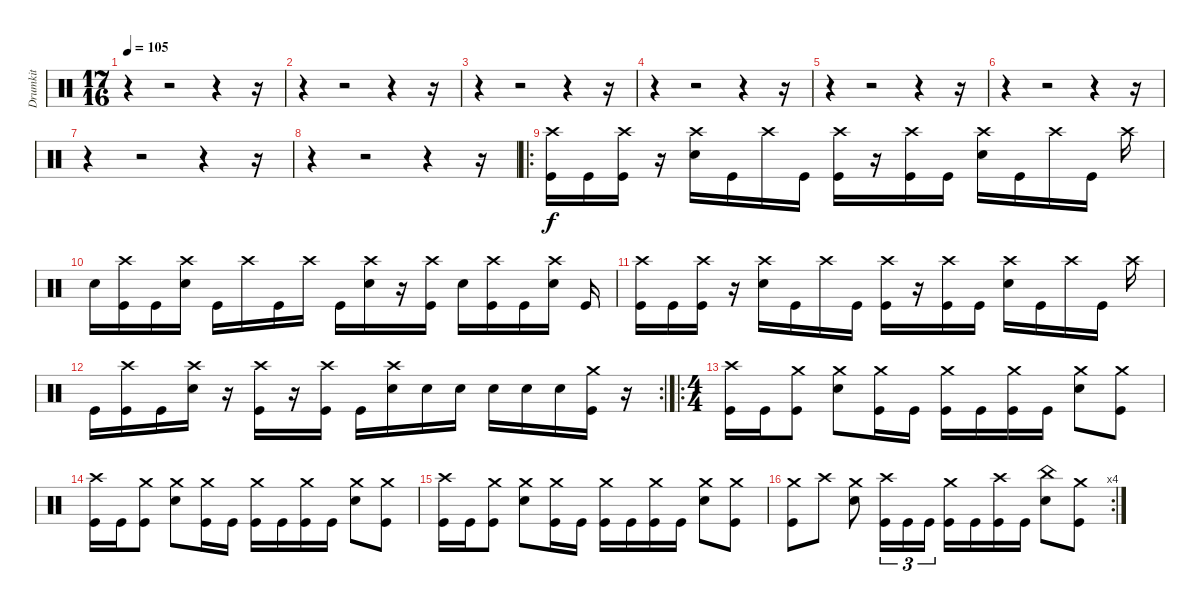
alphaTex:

\track ("Drumkit" "Drumkit") {instrument percussion}
\staff {score}
\articulation defaults
\ts (17 16)
\tempo 105
\clef neutral
\ks c
r.4{dy f} r.2 r.4 r.16 |
r.4 r.2 r.4 r.16 |
r.4 r.2 r.4 r.16 |
r.4 r.2 r.4 r.16 |
r.4 r.2 r.4 r.16 |
r.4 r.2 r.4 r.16 |
r.4 r.2 r.4 r.16 |
r.4 r.2 r.4 r.16 |
\ro
("Crash high (hit)" "Kick (hit)").16 "Kick (hit)".16 ("Crash high (hit)" "Kick (hit)").16 r.16 ("Crash high (hit)" "Snare (hit) 2").16 "Kick (hit)".16 "Crash high (hit)".16 "Kick (hit)".16 ("Crash high (hit)" "Kick (hit)").16 r.16 ("Crash high (hit)" "Kick (hit)").16 "Kick (hit)".16 ("Crash high (hit)" "Snare (hit) 2").16 "Kick (hit)".16 "Crash high (hit)".16 "Kick (hit)".16 "Crash high (hit)".16 |
"Snare (hit) 2".16 ("Crash high (hit)" "Kick (hit)").16 "Kick (hit)".16 ("Crash high (hit)" "Snare (hit) 2").16 "Kick (hit)".16 "Crash high (hit)".16 "Kick (hit)".16 "Crash high (hit)".16 "Kick (hit)".16 ("Crash high (hit)" "Snare (hit) 2").16 r.16 ("Crash high (hit)" "Kick (hit)").16 "Snare (hit) 2".16 ("Crash high (hit)" "Kick (hit)").16 "Kick (hit)".16 ("Crash high (hit)" "Snare (hit) 2").16 "Kick (hit)".16 |
("Crash high (hit)" "Kick (hit)").16 "Kick (hit)".16 ("Crash high (hit)" "Kick (hit)").16 r.16 ("Crash high (hit)" "Snare (hit) 2").16 "Kick (hit)".16 "Crash high (hit)".16 "Kick (hit)".16 ("Crash high (hit)" "Kick (hit)").16 r.16 ("Crash high (hit)" "Kick (hit)").16 "Kick (hit)".16 ("Crash high (hit)" "Snare (hit) 2").16 "Kick (hit)".16 "Crash high (hit)".16 "Kick (hit)".16 "Crash high (hit)".16 |
\rc 2 "Kick (hit)".16
("Crash high (hit)" "Kick (hit)").16 "Kick (hit)".16 ("Crash high (hit)" "Snare (hit) 2").16 r.16 ("Crash high (hit)" "Kick (hit)").16 r.16 ("Crash high (hit)" "Kick (hit)").16 "Kick (hit)".16 ("Crash high (hit)" "Snare (hit) 2").16 "Snare (hit) 2".16 "Snare (hit) 2".16 "Snare (hit) 2".16 "Snare (hit) 2".16 "Snare (hit) 2".16 ("Crash medium (hit)" "Kick (hit)").16 r.16 |
\ro
\ts (4 4)
("Crash high (hit)" "Kick (hit)").16 "Kick (hit)".16 ("Crash medium (hit)" "Kick (hit)").8 ("Crash medium (hit)" "Snare (hit) 2").8 ("Crash medium (hit)" "Kick (hit)").16 "Kick (hit)".16 ("Crash medium (hit)" "Kick (hit)").16 "Kick (hit)".16 ("Crash medium (hit)" "Kick (hit)").16 "Kick (hit)".16 ("Crash medium (hit)" "Snare (hit) 2").8 ("Crash medium (hit)" "Kick (hit)").8 |
("Crash high (hit)" "Kick (hit)").16 "Kick (hit)".16 ("Crash medium (hit)" "Kick (hit)").8 ("Crash medium (hit)" "Snare (hit) 2").8 ("Crash medium (hit)" "Kick (hit)").16 "Kick (hit)".16 ("Crash medium (hit)" "Kick (hit)").16 "Kick (hit)".16 ("Crash medium (hit)" "Kick (hit)").16 "Kick (hit)".16 ("Crash medium (hit)" "Snare (hit) 2").8 ("Crash medium (hit)" "Kick (hit)").8 |
("Crash high (hit)" "Kick (hit)").16 "Kick (hit)".16 ("Crash medium (hit)" "Kick (hit)").8 ("Crash medium (hit)" "Snare (hit) 2").8 ("Crash medium (hit)" "Kick (hit)").16 "Kick (hit)".16 ("Crash medium (hit)" "Kick (hit)").16 "Kick (hit)".16 ("Crash medium (hit)" "Kick (hit)").16 "Kick (hit)".16 ("Crash medium (hit)" "Snare (hit) 2").8 ("Crash medium (hit)" "Kick (hit)").8 |
\rc 4
("Crash medium (hit)" "Kick (hit)").8 "Crash high (hit)".8 ("Crash medium (hit)" "Snare (hit) 2").8 ("Crash high (hit)" "Kick (hit)").16{tu (3 2)} "Kick (hit)".16{tu (3 2)} "Kick (hit)".16{tu (3 2)} ("Crash medium (hit)" "Kick (hit)").16 "Kick (hit)".16 ("Crash high (hit)" "Kick (hit)").16 "Kick (hit)".16 ("China (hit)" "Snare (hit) 2").8 ("Crash medium (hit)" "Kick (hit)").8
